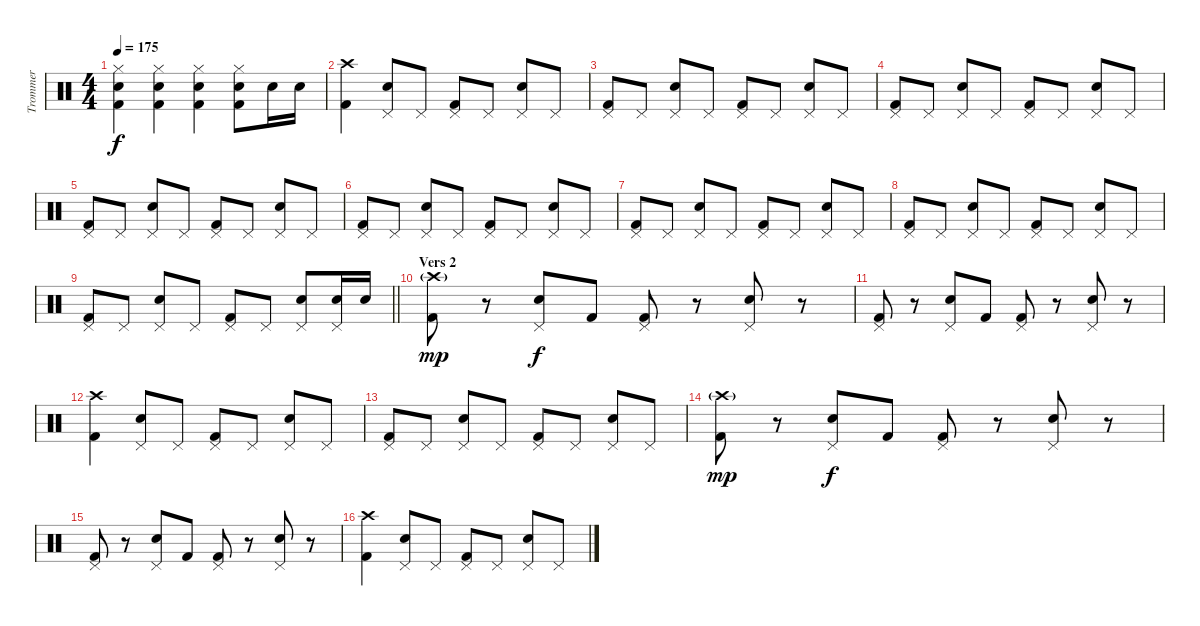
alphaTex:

\track ("Trommer" "Trommer") {instrument percussion}
\staff {score}
\articulation defaults
\ts (4 4)
\tempo 175
\clef neutral
\ks c
("Hi-Hat (closed)" "Electric Snare (hit)" "Kick (hit) 2").4{dy f} ("Hi-Hat (closed)" "Electric Snare (hit)" "Kick (hit) 2").4 ("Hi-Hat (closed)" "Electric Snare (hit)" "Kick (hit) 2").4 ("Hi-Hat (closed)" "Electric Snare (hit)" "Kick (hit) 2").8 "Electric Snare (hit)".16 "Electric Snare (hit)".16 |
("Crash high (hit)" "Kick (hit) 2").4 ("Pedal Hi-Hat (hit)" "Electric Snare (hit)").8 "Pedal Hi-Hat (hit)".8 ("Pedal Hi-Hat (hit)" "Kick (hit) 2").8 "Pedal Hi-Hat (hit)".8 ("Pedal Hi-Hat (hit)" "Electric Snare (hit)").8 "Pedal Hi-Hat (hit)".8 |
("Pedal Hi-Hat (hit)" "Kick (hit) 2").8 "Pedal Hi-Hat (hit)".8 ("Pedal Hi-Hat (hit)" "Electric Snare (hit)").8 "Pedal Hi-Hat (hit)".8 ("Pedal Hi-Hat (hit)" "Kick (hit) 2").8 "Pedal Hi-Hat (hit)".8 ("Pedal Hi-Hat (hit)" "Electric Snare (hit)").8 "Pedal Hi-Hat (hit)".8 |
("Pedal Hi-Hat (hit)" "Kick (hit) 2").8 "Pedal Hi-Hat (hit)".8 ("Pedal Hi-Hat (hit)" "Electric Snare (hit)").8 "Pedal Hi-Hat (hit)".8 ("Pedal Hi-Hat (hit)" "Kick (hit) 2").8 "Pedal Hi-Hat (hit)".8 ("Pedal Hi-Hat (hit)" "Electric Snare (hit)").8 "Pedal Hi-Hat (hit)".8 |
("Pedal Hi-Hat (hit)" "Kick (hit) 2").8 "Pedal Hi-Hat (hit)".8 ("Pedal Hi-Hat (hit)" "Electric Snare (hit)").8 "Pedal Hi-Hat (hit)".8 ("Pedal Hi-Hat (hit)" "Kick (hit) 2").8 "Pedal Hi-Hat (hit)".8 ("Pedal Hi-Hat (hit)" "Electric Snare (hit)").8 "Pedal Hi-Hat (hit)".8 |
("Pedal Hi-Hat (hit)" "Kick (hit) 2").8 "Pedal Hi-Hat (hit)".8 ("Pedal Hi-Hat (hit)" "Electric Snare (hit)").8 "Pedal Hi-Hat (hit)".8 ("Pedal Hi-Hat (hit)" "Kick (hit) 2").8 "Pedal Hi-Hat (hit)".8 ("Pedal Hi-Hat (hit)" "Electric Snare (hit)").8 "Pedal Hi-Hat (hit)".8 |
("Pedal Hi-Hat (hit)" "Kick (hit) 2").8 "Pedal Hi-Hat (hit)".8 ("Pedal Hi-Hat (hit)" "Electric Snare (hit)").8 "Pedal Hi-Hat (hit)".8 ("Pedal Hi-Hat (hit)" "Kick (hit) 2").8 "Pedal Hi-Hat (hit)".8 ("Pedal Hi-Hat (hit)" "Electric Snare (hit)").8 "Pedal Hi-Hat (hit)".8 |
("Pedal Hi-Hat (hit)" "Kick (hit) 2").8 "Pedal Hi-Hat (hit)".8 ("Pedal Hi-Hat (hit)" "Electric Snare (hit)").8 "Pedal Hi-Hat (hit)".8 ("Pedal Hi-Hat (hit)" "Kick (hit) 2").8 "Pedal Hi-Hat (hit)".8 ("Pedal Hi-Hat (hit)" "Electric Snare (hit)").8 "Pedal Hi-Hat (hit)".8 |
\barLineRight lightlight
("Pedal Hi-Hat (hit)" "Kick (hit) 2").8 "Pedal Hi-Hat (hit)".8 ("Pedal Hi-Hat (hit)" "Electric Snare (hit)").8 "Pedal Hi-Hat (hit)".8 ("Pedal Hi-Hat (hit)" "Kick (hit) 2").8 "Pedal Hi-Hat (hit)".8 ("Pedal Hi-Hat (hit)" "Electric Snare (hit)").8 ("Pedal Hi-Hat (hit)" "Electric Snare (hit)").16 "Electric Snare (hit)".16 |
\section ("" "Vers 2")
("Crash high (hit)"{g} "Kick (hit) 2").8{dy mp} r.8 ("Pedal Hi-Hat (hit)" "Electric Snare (hit)").8{dy f} "Kick (hit) 2".8 ("Pedal Hi-Hat (hit)" "Kick (hit) 2").8 r.8 ("Pedal Hi-Hat (hit)" "Electric Snare (hit)").8 r.8 |
("Pedal Hi-Hat (hit)" "Kick (hit) 2").8 r.8 ("Pedal Hi-Hat (hit)" "Electric Snare (hit)").8 "Kick (hit) 2".8 ("Pedal Hi-Hat (hit)" "Kick (hit) 2").8 r.8 ("Pedal Hi-Hat (hit)" "Electric Snare (hit)").8 r.8 |
("Crash high (hit)" "Kick (hit) 2").4 ("Pedal Hi-Hat (hit)" "Electric Snare (hit)").8 "Pedal Hi-Hat (hit)".8 ("Pedal Hi-Hat (hit)" "Kick (hit) 2").8 "Pedal Hi-Hat (hit)".8 ("Pedal Hi-Hat (hit)" "Electric Snare (hit)").8 "Pedal Hi-Hat (hit)".8 |
("Pedal Hi-Hat (hit)" "Kick (hit) 2").8 "Pedal Hi-Hat (hit)".8 ("Pedal Hi-Hat (hit)" "Electric Snare (hit)").8 "Pedal Hi-Hat (hit)".8 ("Pedal Hi-Hat (hit)" "Kick (hit) 2").8 "Pedal Hi-Hat (hit)".8 ("Pedal Hi-Hat (hit)" "Electric Snare (hit)").8 "Pedal Hi-Hat (hit)".8 |
("Crash high (hit)"{g} "Kick (hit) 2").8{dy mp} r.8 ("Pedal Hi-Hat (hit)" "Electric Snare (hit)").8{dy f} "Kick (hit) 2".8 ("Pedal Hi-Hat (hit)" "Kick (hit) 2").8 r.8 ("Pedal Hi-Hat (hit)" "Electric Snare (hit)").8 r.8 |
("Pedal Hi-Hat (hit)" "Kick (hit) 2").8 r.8 ("Pedal Hi-Hat (hit)" "Electric Snare (hit)").8 "Kick (hit) 2".8 ("Pedal Hi-Hat (hit)" "Kick (hit) 2").8 r.8 ("Pedal Hi-Hat (hit)" "Electric Snare (hit)").8 r.8 |
("Crash high (hit)" "Kick (hit) 2").4 ("Pedal Hi-Hat (hit)" "Electric Snare (hit)").8 "Pedal Hi-Hat (hit)".8 ("Pedal Hi-Hat (hit)" "Kick (hit) 2").8 "Pedal Hi-Hat (hit)".8 ("Pedal Hi-Hat (hit)" "Electric Snare (hit)").8 "Pedal Hi-Hat (hit)".8
